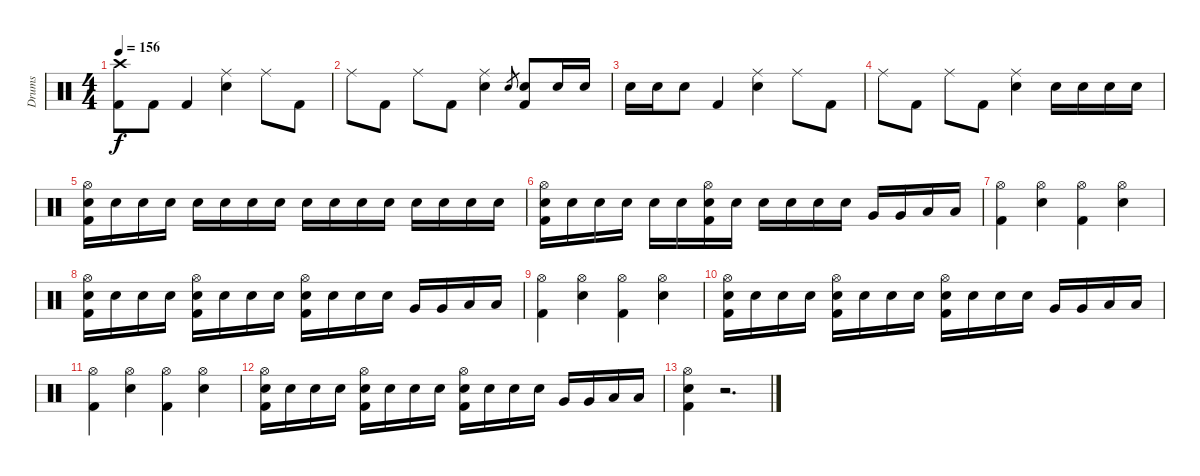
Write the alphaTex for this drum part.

\track ("Drums" "Drums") {instrument percussion}
\staff {score}
\articulation defaults
\ts (4 4)
\tempo 156
\clef neutral
\ks c
("Crash high (hit)" "Kick (hit) 2").8{dy f} "Kick (hit) 2".8 "Kick (hit) 2".4 ("Ride (middle)" "Electric Snare (hit)").4 "Ride (middle)".8 "Kick (hit) 2".8 |
"Ride (middle)".8 "Kick (hit) 2".8 "Ride (middle)".8 "Kick (hit) 2".8 ("Ride (middle)" "Electric Snare (hit)").4 "Electric Snare (hit)".8{gr} ("Electric Snare (hit)" "Kick (hit) 2").8 "Electric Snare (hit)".16 "Electric Snare (hit)".16 |
"Electric Snare (hit)".16 "Electric Snare (hit)".16 "Electric Snare (hit)".8 "Kick (hit) 2".4 ("Ride (middle)" "Electric Snare (hit)").4 "Ride (middle)".8 "Kick (hit) 2".8 |
"Ride (middle)".8 "Kick (hit) 2".8 "Ride (middle)".8 "Kick (hit) 2".8 ("Ride (middle)" "Electric Snare (hit)").4 "Electric Snare (hit)".16 "Electric Snare (hit)".16 "Electric Snare (hit)".16 "Electric Snare (hit)".16 |
("Hi-Hat (open)" "Electric Snare (hit)" "Kick (hit) 2").16 "Electric Snare (hit)".16 "Electric Snare (hit)".16 "Electric Snare (hit)".16 "Electric Snare (hit)".16 "Electric Snare (hit)".16 "Electric Snare (hit)".16 "Electric Snare (hit)".16 "Electric Snare (hit)".16 "Electric Snare (hit)".16 "Electric Snare (hit)".16 "Electric Snare (hit)".16 "Electric Snare (hit)".16 "Electric Snare (hit)".16 "Electric Snare (hit)".16 "Electric Snare (hit)".16 |
("Hi-Hat (open)" "Electric Snare (hit)" "Kick (hit) 2").16 "Electric Snare (hit)".16 "Electric Snare (hit)".16 "Electric Snare (hit)".16 "Electric Snare (hit)".16 "Electric Snare (hit)".16 ("Hi-Hat (open)" "Electric Snare (hit)" "Kick (hit) 2").16 "Electric Snare (hit)".16 "Electric Snare (hit)".16 "Electric Snare (hit)".16 "Electric Snare (hit)".16 "Electric Snare (hit)".16 "Very Low Tom (hit)".16 "Very Low Tom (hit)".16 "Low Floor Tom (hit)".16 "Low Floor Tom (hit)".16 |
("Hi-Hat (open)" "Kick (hit) 2").4 ("Hi-Hat (open)" "Electric Snare (hit)").4 ("Hi-Hat (open)" "Kick (hit) 2").4 ("Hi-Hat (open)" "Electric Snare (hit)").4 |
("Hi-Hat (open)" "Electric Snare (hit)" "Kick (hit) 2").16 "Electric Snare (hit)".16 "Electric Snare (hit)".16 "Electric Snare (hit)".16 ("Hi-Hat (open)" "Electric Snare (hit)" "Kick (hit) 2").16 "Electric Snare (hit)".16 "Electric Snare (hit)".16 "Electric Snare (hit)".16 ("Hi-Hat (open)" "Electric Snare (hit)" "Kick (hit) 2").16 "Electric Snare (hit)".16 "Electric Snare (hit)".16 "Electric Snare (hit)".16 "Very Low Tom (hit)".16 "Very Low Tom (hit)".16 "Low Floor Tom (hit)".16 "Low Floor Tom (hit)".16 |
("Hi-Hat (open)" "Kick (hit) 2").4 ("Hi-Hat (open)" "Electric Snare (hit)").4 ("Hi-Hat (open)" "Kick (hit) 2").4 ("Hi-Hat (open)" "Electric Snare (hit)").4 |
("Hi-Hat (open)" "Electric Snare (hit)" "Kick (hit) 2").16 "Electric Snare (hit)".16 "Electric Snare (hit)".16 "Electric Snare (hit)".16 ("Hi-Hat (open)" "Electric Snare (hit)" "Kick (hit) 2").16 "Electric Snare (hit)".16 "Electric Snare (hit)".16 "Electric Snare (hit)".16 ("Hi-Hat (open)" "Electric Snare (hit)" "Kick (hit) 2").16 "Electric Snare (hit)".16 "Electric Snare (hit)".16 "Electric Snare (hit)".16 "Very Low Tom (hit)".16 "Very Low Tom (hit)".16 "Low Floor Tom (hit)".16 "Low Floor Tom (hit)".16 |
("Hi-Hat (open)" "Kick (hit) 2").4 ("Hi-Hat (open)" "Electric Snare (hit)").4 ("Hi-Hat (open)" "Kick (hit) 2").4 ("Hi-Hat (open)" "Electric Snare (hit)").4 |
("Hi-Hat (open)" "Electric Snare (hit)" "Kick (hit) 2").16 "Electric Snare (hit)".16 "Electric Snare (hit)".16 "Electric Snare (hit)".16 ("Hi-Hat (open)" "Electric Snare (hit)" "Kick (hit) 2").16 "Electric Snare (hit)".16 "Electric Snare (hit)".16 "Electric Snare (hit)".16 ("Hi-Hat (open)" "Electric Snare (hit)" "Kick (hit) 2").16 "Electric Snare (hit)".16 "Electric Snare (hit)".16 "Electric Snare (hit)".16 "Very Low Tom (hit)".16 "Very Low Tom (hit)".16 "Low Floor Tom (hit)".16 "Low Floor Tom (hit)".16 |
("Hi-Hat (open)" "Electric Snare (hit)" "Kick (hit) 2").4 r.2{d}
